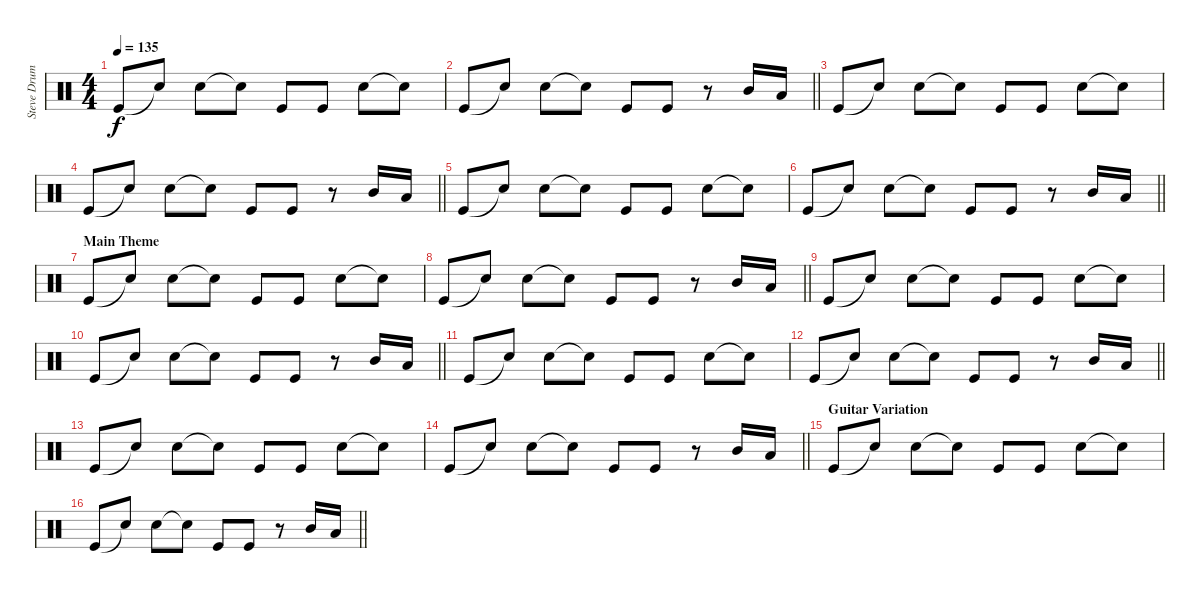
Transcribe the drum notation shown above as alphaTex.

\track ("Steve Drums" "Steve Drum") {instrument percussion}
\staff {score}
\articulation defaults
\ts (4 4)
\tempo 135
\clef neutral
\ks c "Kick (hit)".8{dy f} "Snare (hit)"{t}.8 "Snare (hit) 2".8 "Snare (hit)"{t}.8 "Kick (hit)".8 "Kick (hit)".8 "Snare (hit) 2".8 "Snare (hit)"{t}.8
|
\barLineRight lightlight "Kick (hit)".8 "Snare (hit)"{t}.8 "Snare (hit) 2".8 "Snare (hit)"{t}.8 "Kick (hit)".8 "Kick (hit)".8
r.8 "Mid Tom (hit)".16 "Low Tom (hit)".16 |
"Kick (hit)".8 "Snare (hit)"{t}.8 "Snare (hit) 2".8 "Snare (hit)"{t}.8 "Kick (hit)".8 "Kick (hit)".8 "Snare (hit) 2".8 "Snare (hit)"{t}.8 |
\barLineRight lightlight "Kick (hit)".8 "Snare (hit)"{t}.8 "Snare (hit) 2".8 "Snare (hit)"{t}.8 "Kick (hit)".8 "Kick (hit)".8
r.8 "Mid Tom (hit)".16 "Low Tom (hit)".16 |
"Kick (hit)".8 "Snare (hit)"{t}.8 "Snare (hit) 2".8 "Snare (hit)"{t}.8 "Kick (hit)".8 "Kick (hit)".8 "Snare (hit) 2".8 "Snare (hit)"{t}.8 |
\barLineRight lightlight "Kick (hit)".8 "Snare (hit)"{t}.8 "Snare (hit) 2".8 "Snare (hit)"{t}.8 "Kick (hit)".8 "Kick (hit)".8
r.8 "Mid Tom (hit)".16 "Low Tom (hit)".16 |
\section ("" "Main Theme")
"Kick (hit)".8 "Snare (hit)"{t}.8 "Snare (hit) 2".8 "Snare (hit)"{t}.8 "Kick (hit)".8 "Kick (hit)".8 "Snare (hit) 2".8 "Snare (hit)"{t}.8 |
\barLineRight lightlight "Kick (hit)".8 "Snare (hit)"{t}.8 "Snare (hit) 2".8 "Snare (hit)"{t}.8 "Kick (hit)".8 "Kick (hit)".8
r.8 "Mid Tom (hit)".16 "Low Tom (hit)".16 |
"Kick (hit)".8 "Snare (hit)"{t}.8 "Snare (hit) 2".8 "Snare (hit)"{t}.8 "Kick (hit)".8 "Kick (hit)".8 "Snare (hit) 2".8 "Snare (hit)"{t}.8 |
\barLineRight lightlight "Kick (hit)".8 "Snare (hit)"{t}.8 "Snare (hit) 2".8 "Snare (hit)"{t}.8 "Kick (hit)".8 "Kick (hit)".8
r.8 "Mid Tom (hit)".16 "Low Tom (hit)".16 |
"Kick (hit)".8 "Snare (hit)"{t}.8 "Snare (hit) 2".8 "Snare (hit)"{t}.8 "Kick (hit)".8 "Kick (hit)".8 "Snare (hit) 2".8 "Snare (hit)"{t}.8 |
\barLineRight lightlight "Kick (hit)".8 "Snare (hit)"{t}.8 "Snare (hit) 2".8 "Snare (hit)"{t}.8 "Kick (hit)".8 "Kick (hit)".8
r.8 "Mid Tom (hit)".16 "Low Tom (hit)".16 |
"Kick (hit)".8 "Snare (hit)"{t}.8 "Snare (hit) 2".8 "Snare (hit)"{t}.8 "Kick (hit)".8 "Kick (hit)".8 "Snare (hit) 2".8 "Snare (hit)"{t}.8 |
\barLineRight lightlight "Kick (hit)".8 "Snare (hit)"{t}.8 "Snare (hit) 2".8 "Snare (hit)"{t}.8 "Kick (hit)".8 "Kick (hit)".8
r.8 "Mid Tom (hit)".16 "Low Tom (hit)".16 |
\section ("" "Guitar Variation")
"Kick (hit)".8 "Snare (hit)"{t}.8 "Snare (hit) 2".8 "Snare (hit)"{t}.8 "Kick (hit)".8 "Kick (hit)".8 "Snare (hit) 2".8 "Snare (hit)"{t}.8 |
\barLineRight lightlight "Kick (hit)".8 "Snare (hit)"{t}.8 "Snare (hit) 2".8 "Snare (hit)"{t}.8 "Kick (hit)".8 "Kick (hit)".8
r.8 "Mid Tom (hit)".16 "Low Tom (hit)".16
